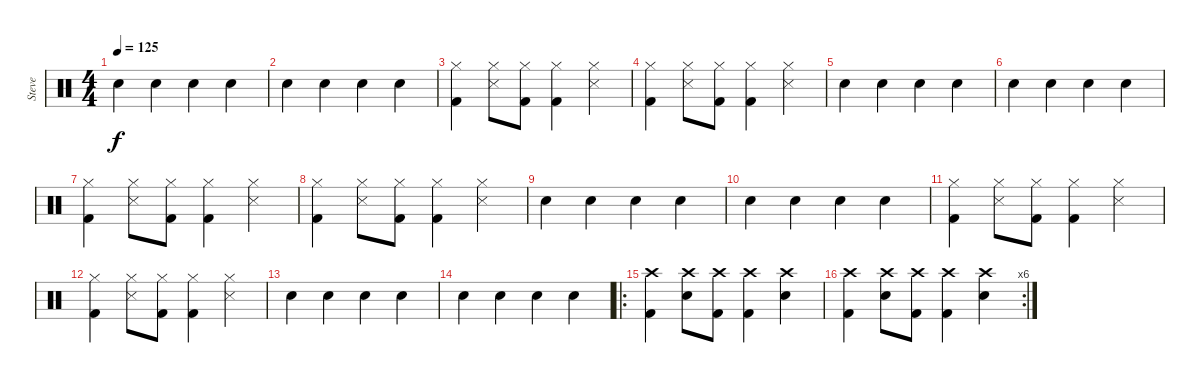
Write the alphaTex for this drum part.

\track ("Steve" "Steve") {instrument percussion}
\staff {score}
\articulation defaults
\ts (4 4)
\tempo 125
\clef neutral
\ks c "Snare (hit) 2".4{dy f} "Snare (hit) 2".4 "Snare (hit) 2".4 "Snare (hit) 2".4
|
"Snare (hit) 2".4 "Snare (hit) 2".4 "Snare (hit) 2".4 "Snare (hit) 2".4 |
("Hi-Hat (closed)" "Kick (hit) 2").4 ("Hi-Hat (closed)" "Snare (side stick) 3").8 ("Hi-Hat (closed)" "Kick (hit) 2").8 ("Hi-Hat (closed)" "Kick (hit) 2").4 ("Hi-Hat (closed)" "Snare (side stick) 3").4 |
("Hi-Hat (closed)" "Kick (hit) 2").4 ("Hi-Hat (closed)" "Snare (side stick) 3").8 ("Hi-Hat (closed)" "Kick (hit) 2").8 ("Hi-Hat (closed)" "Kick (hit) 2").4 ("Hi-Hat (closed)" "Snare (side stick) 3").4 |
"Snare (hit) 2".4 "Snare (hit) 2".4 "Snare (hit) 2".4 "Snare (hit) 2".4 |
"Snare (hit) 2".4 "Snare (hit) 2".4 "Snare (hit) 2".4 "Snare (hit) 2".4 |
("Hi-Hat (closed)" "Kick (hit) 2").4 ("Hi-Hat (closed)" "Snare (side stick) 3").8 ("Hi-Hat (closed)" "Kick (hit) 2").8 ("Hi-Hat (closed)" "Kick (hit) 2").4 ("Hi-Hat (closed)" "Snare (side stick) 3").4 |
("Hi-Hat (closed)" "Kick (hit) 2").4 ("Hi-Hat (closed)" "Snare (side stick) 3").8 ("Hi-Hat (closed)" "Kick (hit) 2").8 ("Hi-Hat (closed)" "Kick (hit) 2").4 ("Hi-Hat (closed)" "Snare (side stick) 3").4 |
"Snare (hit) 2".4 "Snare (hit) 2".4 "Snare (hit) 2".4 "Snare (hit) 2".4 |
"Snare (hit) 2".4 "Snare (hit) 2".4 "Snare (hit) 2".4 "Snare (hit) 2".4 |
("Hi-Hat (closed)" "Kick (hit) 2").4 ("Hi-Hat (closed)" "Snare (side stick) 3").8 ("Hi-Hat (closed)" "Kick (hit) 2").8 ("Hi-Hat (closed)" "Kick (hit) 2").4 ("Hi-Hat (closed)" "Snare (side stick) 3").4 |
("Hi-Hat (closed)" "Kick (hit) 2").4 ("Hi-Hat (closed)" "Snare (side stick) 3").8 ("Hi-Hat (closed)" "Kick (hit) 2").8 ("Hi-Hat (closed)" "Kick (hit) 2").4 ("Hi-Hat (closed)" "Snare (side stick) 3").4 |
"Snare (hit) 2".4 "Snare (hit) 2".4 "Snare (hit) 2".4 "Snare (hit) 2".4 |
"Snare (hit) 2".4 "Snare (hit) 2".4 "Snare (hit) 2".4 "Snare (hit) 2".4 |
\ro
("Crash high (hit)" "Kick (hit) 2").4 ("Crash high (hit)" "Snare (hit) 2").8 ("Crash high (hit)" "Kick (hit) 2").8 ("Crash high (hit)" "Kick (hit) 2").4 ("Crash high (hit)" "Snare (hit) 2").4 |
\rc 6
("Crash high (hit)" "Kick (hit) 2").4 ("Crash high (hit)" "Snare (hit) 2").8 ("Crash high (hit)" "Kick (hit) 2").8 ("Crash high (hit)" "Kick (hit) 2").4 ("Crash high (hit)" "Snare (hit) 2").4
